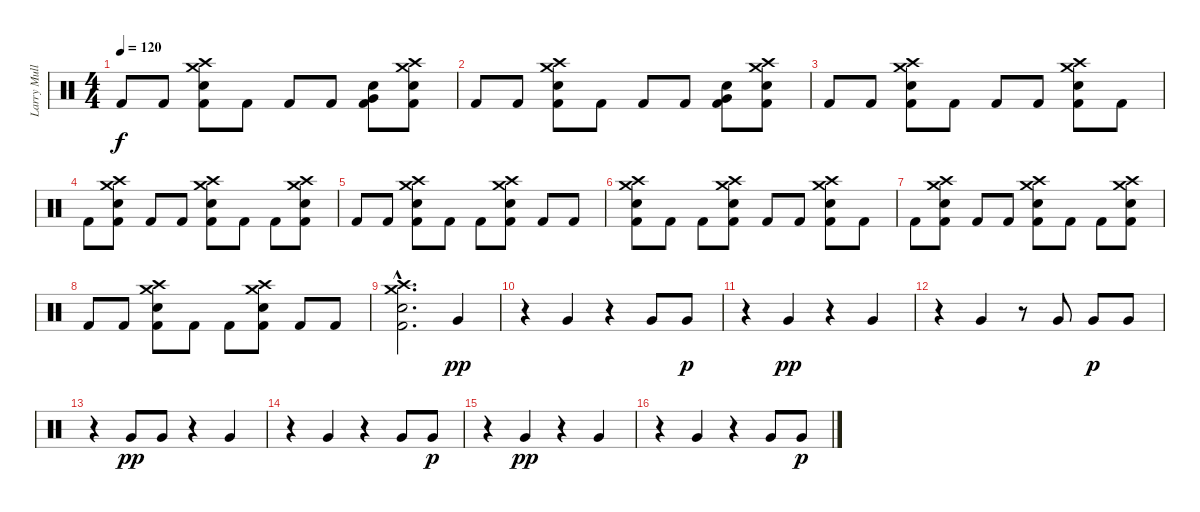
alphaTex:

\track ("Larry Mullen jr." "Larry Mull") {instrument percussion}
\staff {score}
\articulation defaults
\ts (4 4)
\tempo 120
\clef neutral
\ks c "Kick (hit) 2".8{dy f} "Kick (hit) 2".8
("Kick (hit) 2" "Electric Snare (hit)" "Crash high (hit)" "Crash medium (hit)").8 "Kick (hit) 2".8 "Kick (hit) 2".8 "Kick (hit) 2".8 ("Kick (hit) 2" "Electric Snare (hit)" "Very Low Tom (hit)").8 ("Kick (hit) 2" "Electric Snare (hit)" "Crash high (hit)" "Crash medium (hit)").8 |
"Kick (hit) 2".8 "Kick (hit) 2".8 ("Kick (hit) 2" "Electric Snare (hit)" "Crash high (hit)" "Crash medium (hit)").8 "Kick (hit) 2".8 "Kick (hit) 2".8 "Kick (hit) 2".8 ("Kick (hit) 2" "Electric Snare (hit)" "Very Low Tom (hit)").8 ("Kick (hit) 2" "Electric Snare (hit)" "Crash high (hit)" "Crash medium (hit)").8 |
"Kick (hit) 2".8 "Kick (hit) 2".8 ("Kick (hit) 2" "Electric Snare (hit)" "Crash high (hit)" "Crash medium (hit)").8 "Kick (hit) 2".8 "Kick (hit) 2".8 "Kick (hit) 2".8 ("Kick (hit) 2" "Electric Snare (hit)" "Crash high (hit)" "Crash medium (hit)").8 "Kick (hit) 2".8 |
"Kick (hit) 2".8 ("Kick (hit) 2" "Electric Snare (hit)" "Crash high (hit)" "Crash medium (hit)").8 "Kick (hit) 2".8 "Kick (hit) 2".8 ("Kick (hit) 2" "Electric Snare (hit)" "Crash high (hit)" "Crash medium (hit)").8 "Kick (hit) 2".8 "Kick (hit) 2".8 ("Kick (hit) 2" "Electric Snare (hit)" "Crash high (hit)" "Crash medium (hit)").8 |
"Kick (hit) 2".8 "Kick (hit) 2".8 ("Kick (hit) 2" "Electric Snare (hit)" "Crash high (hit)" "Crash medium (hit)").8 "Kick (hit) 2".8 "Kick (hit) 2".8 ("Kick (hit) 2" "Electric Snare (hit)" "Crash high (hit)" "Crash medium (hit)").8 "Kick (hit) 2".8 "Kick (hit) 2".8 |
("Kick (hit) 2" "Electric Snare (hit)" "Crash high (hit)" "Crash medium (hit)").8 "Kick (hit) 2".8 "Kick (hit) 2".8 ("Kick (hit) 2" "Electric Snare (hit)" "Crash high (hit)" "Crash medium (hit)").8 "Kick (hit) 2".8 "Kick (hit) 2".8 ("Kick (hit) 2" "Electric Snare (hit)" "Crash high (hit)" "Crash medium (hit)").8 "Kick (hit) 2".8 |
"Kick (hit) 2".8 ("Kick (hit) 2" "Electric Snare (hit)" "Crash high (hit)" "Crash medium (hit)").8 "Kick (hit) 2".8 "Kick (hit) 2".8 ("Kick (hit) 2" "Electric Snare (hit)" "Crash high (hit)" "Crash medium (hit)").8 "Kick (hit) 2".8 "Kick (hit) 2".8 ("Kick (hit) 2" "Electric Snare (hit)" "Crash high (hit)" "Crash medium (hit)").8 |
"Kick (hit) 2".8 "Kick (hit) 2".8 ("Kick (hit) 2" "Electric Snare (hit)" "Crash high (hit)" "Crash medium (hit)").8 "Kick (hit) 2".8 "Kick (hit) 2".8 ("Kick (hit) 2" "Electric Snare (hit)" "Crash high (hit)" "Crash medium (hit)").8 "Kick (hit) 2".8 "Kick (hit) 2".8 |
("Kick (hit) 2"{hac} "Electric Snare (hit)"{hac} "Crash high (hit)"{hac} "Crash medium (hit)"{hac}).2{d} "Very Low Tom (hit)".4{dy pp} |
r.4 "Very Low Tom (hit)".4 r.4 "Very Low Tom (hit)".8 "Very Low Tom (hit)".8{dy p} |
r.4 "Very Low Tom (hit)".4{dy pp} r.4 "Very Low Tom (hit)".4 |
r.4 "Very Low Tom (hit)".4 r.8 "Very Low Tom (hit)".8 "Very Low Tom (hit)".8{dy p} "Very Low Tom (hit)".8 |
r.4 "Very Low Tom (hit)".8{dy pp} "Very Low Tom (hit)".8 r.4 "Very Low Tom (hit)".4 |
r.4 "Very Low Tom (hit)".4 r.4 "Very Low Tom (hit)".8 "Very Low Tom (hit)".8{dy p} |
r.4 "Very Low Tom (hit)".4{dy pp} r.4 "Very Low Tom (hit)".4 |
r.4 "Very Low Tom (hit)".4 r.4 "Very Low Tom (hit)".8 "Very Low Tom (hit)".8{dy p}
